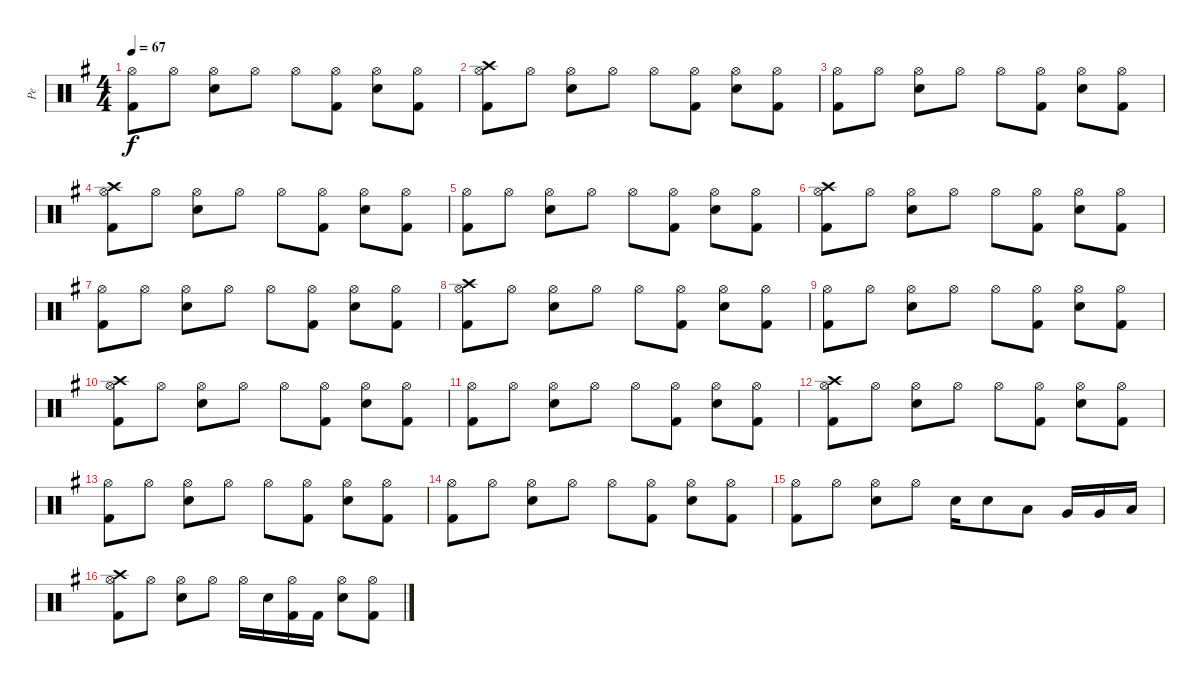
\track ("Pe" "Pe") {instrument percussion}
\staff {score}
\articulation defaults
\ts (4 4)
\tempo 67
\clef neutral
\ks g
("Hi-Hat (open)" "Kick (hit) 2").8{dy f} "Hi-Hat (open)".8 ("Snare (hit) 2" "Hi-Hat (open)").8 "Hi-Hat (open)".8 "Hi-Hat (open)".8 ("Hi-Hat (open)" "Kick (hit) 2").8 ("Snare (hit) 2" "Hi-Hat (open)").8 ("Hi-Hat (open)" "Kick (hit) 2").8 |
("Crash high (hit)" "Hi-Hat (open)" "Kick (hit) 2").8 "Hi-Hat (open)".8 ("Snare (hit) 2" "Hi-Hat (open)").8 "Hi-Hat (open)".8 "Hi-Hat (open)".8 ("Hi-Hat (open)" "Kick (hit) 2").8 ("Snare (hit) 2" "Hi-Hat (open)").8 ("Hi-Hat (open)" "Kick (hit) 2").8 |
("Hi-Hat (open)" "Kick (hit) 2").8 "Hi-Hat (open)".8 ("Snare (hit) 2" "Hi-Hat (open)").8 "Hi-Hat (open)".8 "Hi-Hat (open)".8 ("Hi-Hat (open)" "Kick (hit) 2").8 ("Snare (hit) 2" "Hi-Hat (open)").8 ("Hi-Hat (open)" "Kick (hit) 2").8 |
("Crash high (hit)" "Hi-Hat (open)" "Kick (hit) 2").8 "Hi-Hat (open)".8 ("Snare (hit) 2" "Hi-Hat (open)").8 "Hi-Hat (open)".8 "Hi-Hat (open)".8 ("Hi-Hat (open)" "Kick (hit) 2").8 ("Snare (hit) 2" "Hi-Hat (open)").8 ("Hi-Hat (open)" "Kick (hit) 2").8 |
("Hi-Hat (open)" "Kick (hit) 2").8 "Hi-Hat (open)".8 ("Snare (hit) 2" "Hi-Hat (open)").8 "Hi-Hat (open)".8 "Hi-Hat (open)".8 ("Hi-Hat (open)" "Kick (hit) 2").8 ("Snare (hit) 2" "Hi-Hat (open)").8 ("Hi-Hat (open)" "Kick (hit) 2").8 |
("Crash high (hit)" "Hi-Hat (open)" "Kick (hit) 2").8 "Hi-Hat (open)".8 ("Snare (hit) 2" "Hi-Hat (open)").8 "Hi-Hat (open)".8 "Hi-Hat (open)".8 ("Hi-Hat (open)" "Kick (hit) 2").8 ("Snare (hit) 2" "Hi-Hat (open)").8 ("Hi-Hat (open)" "Kick (hit) 2").8 |
("Hi-Hat (open)" "Kick (hit) 2").8 "Hi-Hat (open)".8 ("Snare (hit) 2" "Hi-Hat (open)").8 "Hi-Hat (open)".8 "Hi-Hat (open)".8 ("Hi-Hat (open)" "Kick (hit) 2").8 ("Snare (hit) 2" "Hi-Hat (open)").8 ("Hi-Hat (open)" "Kick (hit) 2").8 |
("Crash high (hit)" "Hi-Hat (open)" "Kick (hit) 2").8 "Hi-Hat (open)".8 ("Snare (hit) 2" "Hi-Hat (open)").8 "Hi-Hat (open)".8 "Hi-Hat (open)".8 ("Hi-Hat (open)" "Kick (hit) 2").8 ("Snare (hit) 2" "Hi-Hat (open)").8 ("Hi-Hat (open)" "Kick (hit) 2").8 |
("Hi-Hat (open)" "Kick (hit) 2").8 "Hi-Hat (open)".8 ("Snare (hit) 2" "Hi-Hat (open)").8 "Hi-Hat (open)".8 "Hi-Hat (open)".8 ("Hi-Hat (open)" "Kick (hit) 2").8 ("Snare (hit) 2" "Hi-Hat (open)").8 ("Hi-Hat (open)" "Kick (hit) 2").8 |
("Crash high (hit)" "Hi-Hat (open)" "Kick (hit) 2").8 "Hi-Hat (open)".8 ("Snare (hit) 2" "Hi-Hat (open)").8 "Hi-Hat (open)".8 "Hi-Hat (open)".8 ("Hi-Hat (open)" "Kick (hit) 2").8 ("Snare (hit) 2" "Hi-Hat (open)").8 ("Hi-Hat (open)" "Kick (hit) 2").8 |
("Hi-Hat (open)" "Kick (hit) 2").8 "Hi-Hat (open)".8 ("Snare (hit) 2" "Hi-Hat (open)").8 "Hi-Hat (open)".8 "Hi-Hat (open)".8 ("Hi-Hat (open)" "Kick (hit) 2").8 ("Snare (hit) 2" "Hi-Hat (open)").8 ("Hi-Hat (open)" "Kick (hit) 2").8 |
("Crash high (hit)" "Hi-Hat (open)" "Kick (hit) 2").8 "Hi-Hat (open)".8 ("Snare (hit) 2" "Hi-Hat (open)").8 "Hi-Hat (open)".8 "Hi-Hat (open)".8 ("Hi-Hat (open)" "Kick (hit) 2").8 ("Snare (hit) 2" "Hi-Hat (open)").8 ("Hi-Hat (open)" "Kick (hit) 2").8 |
("Hi-Hat (open)" "Kick (hit) 2").8 "Hi-Hat (open)".8 ("Snare (hit) 2" "Hi-Hat (open)").8 "Hi-Hat (open)".8 "Hi-Hat (open)".8 ("Hi-Hat (open)" "Kick (hit) 2").8 ("Snare (hit) 2" "Hi-Hat (open)").8 ("Hi-Hat (open)" "Kick (hit) 2").8 |
("Hi-Hat (open)" "Kick (hit) 2").8 "Hi-Hat (open)".8 ("Snare (hit) 2" "Hi-Hat (open)").8 "Hi-Hat (open)".8 "Hi-Hat (open)".8 ("Hi-Hat (open)" "Kick (hit) 2").8 ("Snare (hit) 2" "Hi-Hat (open)").8 ("Hi-Hat (open)" "Kick (hit) 2").8 |
("Hi-Hat (open)" "Kick (hit) 2").8 "Hi-Hat (open)".8 ("Snare (hit) 2" "Hi-Hat (open)").8 "Hi-Hat (open)".8 "Snare (hit) 2".16 "Snare (hit) 2".8 "Low Tom (hit)".8 "Very Low Tom (hit)".16 "Very Low Tom (hit)".16 "Low Floor Tom (hit)".16 |
("Crash high (hit)" "Hi-Hat (open)" "Kick (hit) 2").8 "Hi-Hat (open)".8 ("Snare (hit) 2" "Hi-Hat (open)").8 "Hi-Hat (open)".8 "Hi-Hat (open)".16 "Snare (hit) 2".16 ("Hi-Hat (open)" "Kick (hit) 2").16 "Kick (hit) 2".16 ("Snare (hit) 2" "Hi-Hat (open)").8 ("Hi-Hat (open)" "Kick (hit) 2").8
